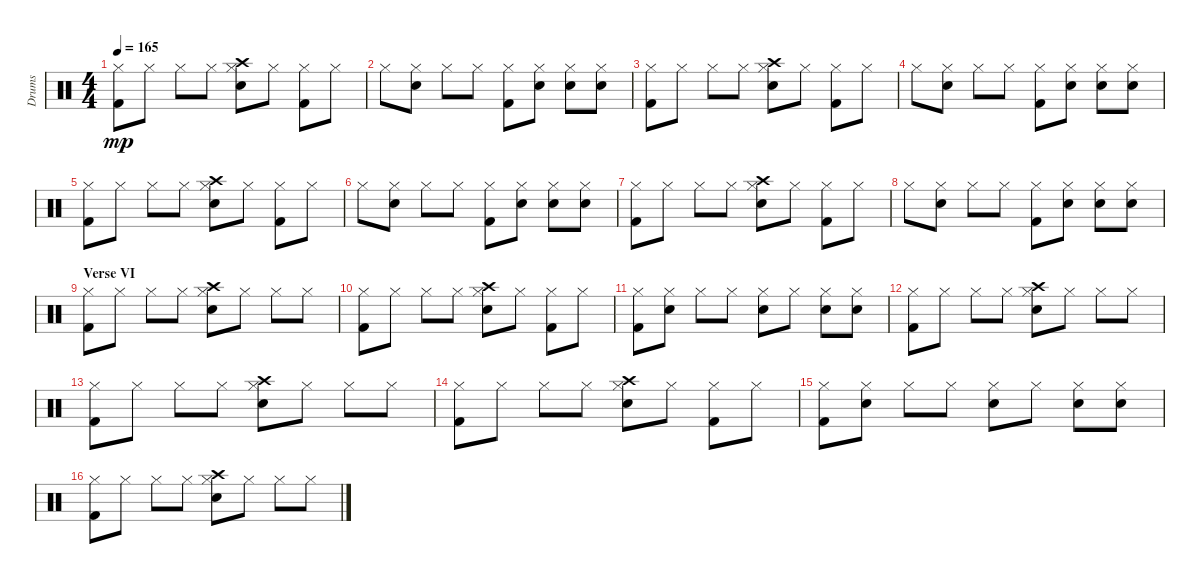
\track ("Drums" "Drums") {instrument percussion}
\staff {score}
\articulation defaults
\ts (4 4)
\tempo 165
\clef neutral
\ks c
("Hi-Hat (closed)" "Kick (hit) 2").8{dy mp} "Hi-Hat (closed)".8 "Hi-Hat (closed)".8 "Hi-Hat (closed)".8 ("Hi-Hat (closed)" "Snare (hit) 2" "Crash high (hit)").8 "Hi-Hat (closed)".8 ("Hi-Hat (closed)" "Kick (hit) 2").8 "Hi-Hat (closed)".8 |
"Hi-Hat (closed)".8 ("Hi-Hat (closed)" "Snare (hit) 2").8 "Hi-Hat (closed)".8 "Hi-Hat (closed)".8 ("Hi-Hat (closed)" "Kick (hit) 2").8 ("Hi-Hat (closed)" "Electric Snare (hit)").8 ("Hi-Hat (closed)" "Electric Snare (hit)").8 ("Hi-Hat (closed)" "Snare (hit) 2").8 |
("Hi-Hat (closed)" "Kick (hit) 2").8 "Hi-Hat (closed)".8 "Hi-Hat (closed)".8 "Hi-Hat (closed)".8 ("Hi-Hat (closed)" "Snare (hit) 2" "Crash high (hit)").8 "Hi-Hat (closed)".8 ("Hi-Hat (closed)" "Kick (hit) 2").8 "Hi-Hat (closed)".8 |
"Hi-Hat (closed)".8 ("Hi-Hat (closed)" "Snare (hit) 2").8 "Hi-Hat (closed)".8 "Hi-Hat (closed)".8 ("Hi-Hat (closed)" "Kick (hit) 2").8 ("Hi-Hat (closed)" "Electric Snare (hit)").8 ("Hi-Hat (closed)" "Electric Snare (hit)").8 ("Hi-Hat (closed)" "Snare (hit) 2").8 |
("Hi-Hat (closed)" "Kick (hit) 2").8 "Hi-Hat (closed)".8 "Hi-Hat (closed)".8 "Hi-Hat (closed)".8 ("Hi-Hat (closed)" "Snare (hit) 2" "Crash high (hit)").8 "Hi-Hat (closed)".8 ("Hi-Hat (closed)" "Kick (hit) 2").8 "Hi-Hat (closed)".8 |
"Hi-Hat (closed)".8 ("Hi-Hat (closed)" "Snare (hit) 2").8 "Hi-Hat (closed)".8 "Hi-Hat (closed)".8 ("Hi-Hat (closed)" "Kick (hit) 2").8 ("Hi-Hat (closed)" "Electric Snare (hit)").8 ("Hi-Hat (closed)" "Electric Snare (hit)").8 ("Hi-Hat (closed)" "Snare (hit) 2").8 |
("Hi-Hat (closed)" "Kick (hit) 2").8 "Hi-Hat (closed)".8 "Hi-Hat (closed)".8 "Hi-Hat (closed)".8 ("Hi-Hat (closed)" "Snare (hit) 2" "Crash high (hit)").8 "Hi-Hat (closed)".8 ("Hi-Hat (closed)" "Kick (hit) 2").8 "Hi-Hat (closed)".8 |
"Hi-Hat (closed)".8 ("Hi-Hat (closed)" "Snare (hit) 2").8 "Hi-Hat (closed)".8 "Hi-Hat (closed)".8 ("Hi-Hat (closed)" "Kick (hit) 2").8 ("Hi-Hat (closed)" "Electric Snare (hit)").8 ("Hi-Hat (closed)" "Electric Snare (hit)").8 ("Hi-Hat (closed)" "Snare (hit) 2").8 |
\section ("" "Verse VI")
("Hi-Hat (closed)" "Kick (hit) 2").8 "Hi-Hat (closed)".8 "Hi-Hat (closed)".8 "Hi-Hat (closed)".8 ("Hi-Hat (closed)" "Snare (hit) 2" "Crash high (hit)").8 "Hi-Hat (closed)".8 "Hi-Hat (closed)".8 "Hi-Hat (closed)".8 |
("Hi-Hat (closed)" "Kick (hit) 2").8 "Hi-Hat (closed)".8 "Hi-Hat (closed)".8 "Hi-Hat (closed)".8 ("Hi-Hat (closed)" "Snare (hit) 2" "Crash high (hit)").8 "Hi-Hat (closed)".8 ("Hi-Hat (closed)" "Kick (hit) 2").8 "Hi-Hat (closed)".8 |
("Hi-Hat (closed)" "Kick (hit) 2").8 ("Hi-Hat (closed)" "Snare (hit) 2").8 "Hi-Hat (closed)".8 "Hi-Hat (closed)".8 ("Hi-Hat (closed)" "Snare (hit) 2").8 "Hi-Hat (closed)".8 ("Hi-Hat (closed)" "Electric Snare (hit)").8 ("Hi-Hat (closed)" "Electric Snare (hit)").8 |
("Hi-Hat (closed)" "Kick (hit) 2").8 "Hi-Hat (closed)".8 "Hi-Hat (closed)".8 "Hi-Hat (closed)".8 ("Hi-Hat (closed)" "Snare (hit) 2" "Crash high (hit)").8 "Hi-Hat (closed)".8 "Hi-Hat (closed)".8 "Hi-Hat (closed)".8 |
("Hi-Hat (closed)" "Kick (hit) 2").8 "Hi-Hat (closed)".8 "Hi-Hat (closed)".8 "Hi-Hat (closed)".8 ("Hi-Hat (closed)" "Snare (hit) 2" "Crash high (hit)").8 "Hi-Hat (closed)".8 "Hi-Hat (closed)".8 "Hi-Hat (closed)".8 |
("Hi-Hat (closed)" "Kick (hit) 2").8 "Hi-Hat (closed)".8 "Hi-Hat (closed)".8 "Hi-Hat (closed)".8 ("Hi-Hat (closed)" "Snare (hit) 2" "Crash high (hit)").8 "Hi-Hat (closed)".8 ("Hi-Hat (closed)" "Kick (hit) 2").8 "Hi-Hat (closed)".8 |
("Hi-Hat (closed)" "Kick (hit) 2").8 ("Hi-Hat (closed)" "Snare (hit) 2").8 "Hi-Hat (closed)".8 "Hi-Hat (closed)".8 ("Hi-Hat (closed)" "Snare (hit) 2").8 "Hi-Hat (closed)".8 ("Hi-Hat (closed)" "Electric Snare (hit)").8 ("Hi-Hat (closed)" "Electric Snare (hit)").8 |
("Hi-Hat (closed)" "Kick (hit) 2").8 "Hi-Hat (closed)".8 "Hi-Hat (closed)".8 "Hi-Hat (closed)".8 ("Hi-Hat (closed)" "Snare (hit) 2" "Crash high (hit)").8 "Hi-Hat (closed)".8 "Hi-Hat (closed)".8 "Hi-Hat (closed)".8
